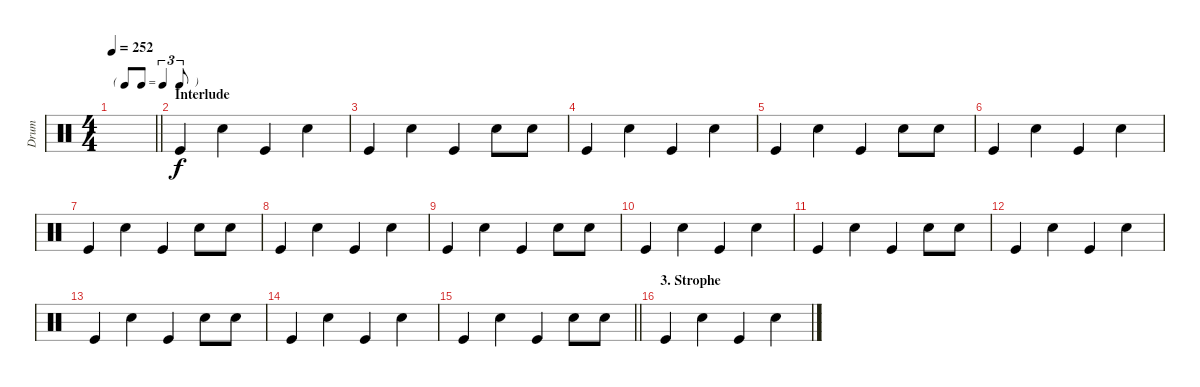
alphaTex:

\track ("Drum" "Drum") {instrument percussion}
\staff {score}
\articulation defaults
\ts (4 4)
\tf triplet8th
\tempo 252
\clef neutral
\barLineRight lightlight
\ks c
|
\section ("" "Interlude")
"Kick (hit)".4 "Snare (hit) 2".4 "Kick (hit)".4 "Snare (hit) 2".4 |
"Kick (hit)".4 "Snare (hit) 2".4 "Kick (hit)".4 "Snare (hit) 2".8 "Snare (hit) 2".8 |
"Kick (hit)".4 "Snare (hit) 2".4 "Kick (hit)".4 "Snare (hit) 2".4 |
"Kick (hit)".4 "Snare (hit) 2".4 "Kick (hit)".4 "Snare (hit) 2".8 "Snare (hit) 2".8 |
"Kick (hit)".4 "Snare (hit) 2".4 "Kick (hit)".4 "Snare (hit) 2".4 |
"Kick (hit)".4 "Snare (hit) 2".4 "Kick (hit)".4 "Snare (hit) 2".8 "Snare (hit) 2".8 |
"Kick (hit)".4 "Snare (hit) 2".4 "Kick (hit)".4 "Snare (hit) 2".4 |
"Kick (hit)".4 "Snare (hit) 2".4 "Kick (hit)".4 "Snare (hit) 2".8 "Snare (hit) 2".8 |
"Kick (hit)".4 "Snare (hit) 2".4 "Kick (hit)".4 "Snare (hit) 2".4 |
"Kick (hit)".4 "Snare (hit) 2".4 "Kick (hit)".4 "Snare (hit) 2".8 "Snare (hit) 2".8 |
"Kick (hit)".4 "Snare (hit) 2".4 "Kick (hit)".4 "Snare (hit) 2".4 |
"Kick (hit)".4 "Snare (hit) 2".4 "Kick (hit)".4 "Snare (hit) 2".8 "Snare (hit) 2".8 |
"Kick (hit)".4 "Snare (hit) 2".4 "Kick (hit)".4 "Snare (hit) 2".4 |
\barLineRight lightlight "Kick (hit)".4 "Snare (hit) 2".4 "Kick (hit)".4 "Snare (hit) 2".8 "Snare (hit) 2".8
|
\section ("" "3. Strophe")
"Kick (hit)".4 "Snare (hit) 2".4 "Kick (hit)".4 "Snare (hit) 2".4
